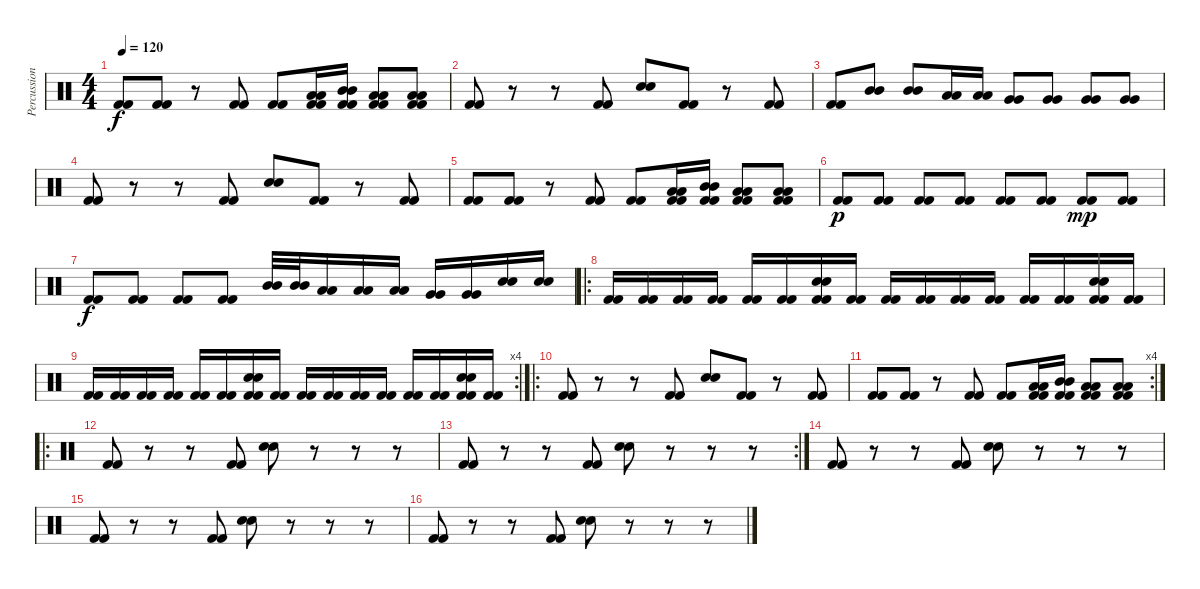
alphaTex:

\track ("Percussion" "Percussion") {instrument percussion}
\staff {score}
\articulation defaults
\ts (4 4)
\tempo 120
\clef neutral
\ks c
("Kick (hit) 2" "Kick (hit) 2").8{dy f} ("Kick (hit) 2" "Kick (hit) 2").8 r.8 ("Kick (hit) 2" "Kick (hit) 2").8 ("Kick (hit) 2" "Kick (hit) 2").8 ("Low Tom (hit)" "Low Tom (hit)" "Kick (hit) 2" "Kick (hit) 2").16 ("Mid Tom (hit)" "Mid Tom (hit)" "Kick (hit) 2" "Kick (hit) 2").16 ("Low Tom (hit)" "Low Tom (hit)" "Kick (hit) 2" "Kick (hit) 2").8 ("Low Tom (hit)" "Low Tom (hit)" "Kick (hit) 2" "Kick (hit) 2").8 |
("Kick (hit) 2" "Kick (hit) 2").8 r.8 r.8 ("Kick (hit) 2" "Kick (hit) 2").8 ("Electric Snare (hit)" "Electric Snare (hit)").8 ("Kick (hit) 2" "Kick (hit) 2").8 r.8 ("Kick (hit) 2" "Kick (hit) 2").8 |
("Kick (hit) 2" "Kick (hit) 2").8 ("Mid Tom (hit)" "Mid Tom (hit)").8 ("Mid Tom (hit)" "Mid Tom (hit)").8 ("Low Tom (hit)" "Low Tom (hit)").16 ("Low Tom (hit)" "Low Tom (hit)").16 ("Very Low Tom (hit)" "Very Low Tom (hit)").8 ("Very Low Tom (hit)" "Very Low Tom (hit)").8 ("Very Low Tom (hit)" "Very Low Tom (hit)").8 ("Very Low Tom (hit)" "Very Low Tom (hit)").8 |
("Kick (hit) 2" "Kick (hit) 2").8 r.8 r.8 ("Kick (hit) 2" "Kick (hit) 2").8 ("Electric Snare (hit)" "Electric Snare (hit)").8 ("Kick (hit) 2" "Kick (hit) 2").8 r.8 ("Kick (hit) 2" "Kick (hit) 2").8 |
("Kick (hit) 2" "Kick (hit) 2").8 ("Kick (hit) 2" "Kick (hit) 2").8 r.8 ("Kick (hit) 2" "Kick (hit) 2").8 ("Kick (hit) 2" "Kick (hit) 2").8 ("Low Tom (hit)" "Low Tom (hit)" "Kick (hit) 2" "Kick (hit) 2").16 ("Mid Tom (hit)" "Mid Tom (hit)" "Kick (hit) 2" "Kick (hit) 2").16 ("Low Tom (hit)" "Low Tom (hit)" "Kick (hit) 2" "Kick (hit) 2").8 ("Low Tom (hit)" "Low Tom (hit)" "Kick (hit) 2" "Kick (hit) 2").8 |
("Kick (hit) 2" "Kick (hit) 2").8{dy p} ("Kick (hit) 2" "Kick (hit) 2").8 ("Kick (hit) 2" "Kick (hit) 2").8 ("Kick (hit) 2" "Kick (hit) 2").8 ("Kick (hit) 2" "Kick (hit) 2").8 ("Kick (hit) 2" "Kick (hit) 2").8 ("Kick (hit) 2" "Kick (hit) 2").8{dy mp} ("Kick (hit) 2" "Kick (hit) 2").8 |
("Kick (hit) 2" "Kick (hit) 2").8{dy f} ("Kick (hit) 2" "Kick (hit) 2").8 ("Kick (hit) 2" "Kick (hit) 2").8 ("Kick (hit) 2" "Kick (hit) 2").8 ("Mid Tom (hit)" "Mid Tom (hit)").32 ("Mid Tom (hit)" "Mid Tom (hit)").32 ("Low Tom (hit)" "Low Tom (hit)").16 ("Low Tom (hit)" "Low Tom (hit)").16 ("Low Tom (hit)" "Low Tom (hit)").16 ("Very Low Tom (hit)" "Very Low Tom (hit)").16 ("Very Low Tom (hit)" "Very Low Tom (hit)").16 ("Electric Snare (hit)" "Electric Snare (hit)").16 ("Electric Snare (hit)" "Electric Snare (hit)").16 |
\ro
("Kick (hit) 2" "Kick (hit) 2").16 ("Kick (hit) 2" "Kick (hit) 2").16 ("Kick (hit) 2" "Kick (hit) 2").16 ("Kick (hit) 2" "Kick (hit) 2").16 ("Kick (hit) 2" "Kick (hit) 2").16 ("Kick (hit) 2" "Kick (hit) 2").16 ("Electric Snare (hit)" "Electric Snare (hit)" "Kick (hit) 2" "Kick (hit) 2").16 ("Kick (hit) 2" "Kick (hit) 2").16 ("Kick (hit) 2" "Kick (hit) 2").16 ("Kick (hit) 2" "Kick (hit) 2").16 ("Kick (hit) 2" "Kick (hit) 2").16 ("Kick (hit) 2" "Kick (hit) 2").16 ("Kick (hit) 2" "Kick (hit) 2").16 ("Kick (hit) 2" "Kick (hit) 2").16 ("Electric Snare (hit)" "Electric Snare (hit)" "Kick (hit) 2" "Kick (hit) 2").16 ("Kick (hit) 2" "Kick (hit) 2").16 |
\rc 4
("Kick (hit) 2" "Kick (hit) 2").16 ("Kick (hit) 2" "Kick (hit) 2").16 ("Kick (hit) 2" "Kick (hit) 2").16 ("Kick (hit) 2" "Kick (hit) 2").16 ("Kick (hit) 2" "Kick (hit) 2").16 ("Kick (hit) 2" "Kick (hit) 2").16 ("Electric Snare (hit)" "Electric Snare (hit)" "Kick (hit) 2" "Kick (hit) 2").16 ("Kick (hit) 2" "Kick (hit) 2").16 ("Kick (hit) 2" "Kick (hit) 2").16 ("Kick (hit) 2" "Kick (hit) 2").16 ("Kick (hit) 2" "Kick (hit) 2").16 ("Kick (hit) 2" "Kick (hit) 2").16 ("Kick (hit) 2" "Kick (hit) 2").16 ("Kick (hit) 2" "Kick (hit) 2").16 ("Electric Snare (hit)" "Electric Snare (hit)" "Kick (hit) 2" "Kick (hit) 2").16 ("Kick (hit) 2" "Kick (hit) 2").16 |
\ro
("Kick (hit) 2" "Kick (hit) 2").8 r.8 r.8 ("Kick (hit) 2" "Kick (hit) 2").8 ("Electric Snare (hit)" "Electric Snare (hit)").8 ("Kick (hit) 2" "Kick (hit) 2").8 r.8 ("Kick (hit) 2" "Kick (hit) 2").8 |
\rc 4
("Kick (hit) 2" "Kick (hit) 2").8 ("Kick (hit) 2" "Kick (hit) 2").8 r.8 ("Kick (hit) 2" "Kick (hit) 2").8 ("Kick (hit) 2" "Kick (hit) 2").8 ("Low Tom (hit)" "Low Tom (hit)" "Kick (hit) 2" "Kick (hit) 2").16 ("Mid Tom (hit)" "Mid Tom (hit)" "Kick (hit) 2" "Kick (hit) 2").16 ("Low Tom (hit)" "Low Tom (hit)" "Kick (hit) 2" "Kick (hit) 2").8 ("Low Tom (hit)" "Low Tom (hit)" "Kick (hit) 2" "Kick (hit) 2").8 |
\ro
("Kick (hit) 2" "Kick (hit) 2").8 r.8 r.8 ("Kick (hit) 2" "Kick (hit) 2").8 ("Electric Snare (hit)" "Electric Snare (hit)").8 r.8 r.8 r.8 |
\rc 2
("Kick (hit) 2" "Kick (hit) 2").8 r.8 r.8 ("Kick (hit) 2" "Kick (hit) 2").8 ("Electric Snare (hit)" "Electric Snare (hit)").8 r.8 r.8 r.8 |
("Kick (hit) 2" "Kick (hit) 2").8 r.8 r.8 ("Kick (hit) 2" "Kick (hit) 2").8 ("Electric Snare (hit)" "Electric Snare (hit)").8 r.8 r.8 r.8 |
("Kick (hit) 2" "Kick (hit) 2").8 r.8 r.8 ("Kick (hit) 2" "Kick (hit) 2").8 ("Electric Snare (hit)" "Electric Snare (hit)").8 r.8 r.8 r.8 |
("Kick (hit) 2" "Kick (hit) 2").8 r.8 r.8 ("Kick (hit) 2" "Kick (hit) 2").8 ("Electric Snare (hit)" "Electric Snare (hit)").8 r.8 r.8 r.8
